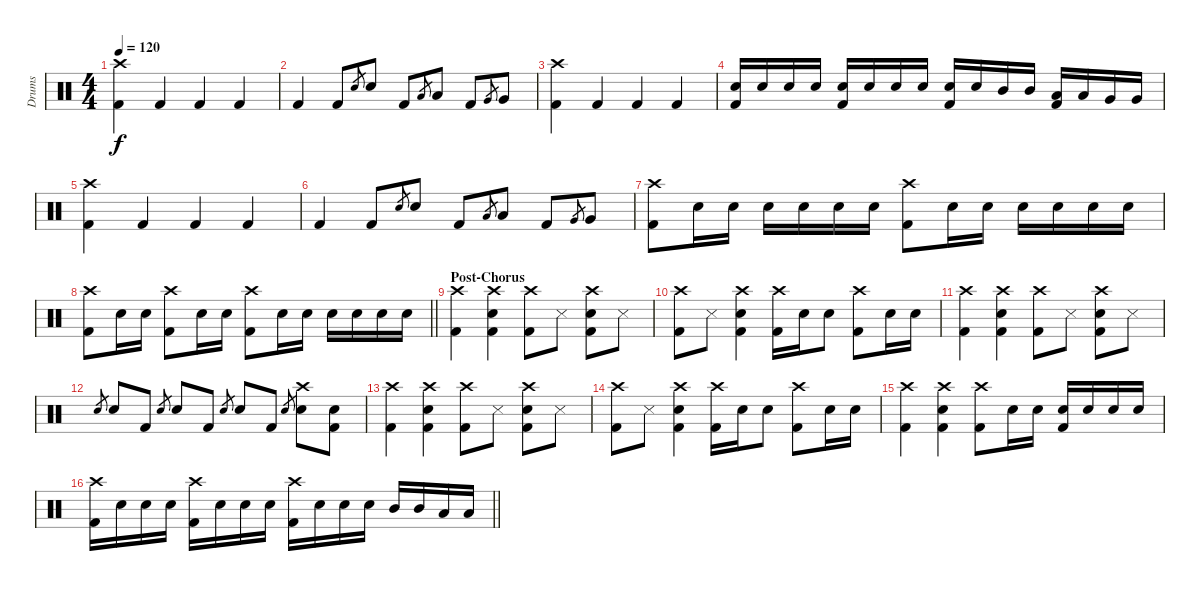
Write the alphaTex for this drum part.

\track ("Drums" "Drums") {instrument percussion}
\staff {score}
\articulation defaults
\ts (4 4)
\tempo 120
\clef neutral
\ks c
("Crash high (hit)" "Kick (hit) 2").4{dy f} "Kick (hit) 2".4 "Kick (hit) 2".4 "Kick (hit) 2".4 |
"Kick (hit) 2".4 "Kick (hit) 2".8 "Snare (hit) 2".8{gr} "Snare (hit) 2".8 "Kick (hit) 2".8 "Low Tom (hit)".8{gr} "Low Tom (hit)".8 "Kick (hit) 2".8 "Very Low Tom (hit)".8{gr} "Very Low Tom (hit)".8 |
("Crash high (hit)" "Kick (hit) 2").4 "Kick (hit) 2".4 "Kick (hit) 2".4 "Kick (hit) 2".4 |
("Snare (hit) 2" "Kick (hit) 2").16{volume 5} "Snare (hit) 2".16{volume 13} "Snare (hit) 2".16 "Snare (hit) 2".16 ("Snare (hit) 2" "Kick (hit) 2").16 "Snare (hit) 2".16 "Snare (hit) 2".16 "Snare (hit) 2".16 ("Snare (hit) 2" "Kick (hit) 2").16 "Snare (hit) 2".16 "Mid Tom (hit)".16 "Mid Tom (hit)".16 ("Low Tom (hit)" "Kick (hit) 2").16 "Low Tom (hit)".16 "Very Low Tom (hit)".16 "Very Low Tom (hit)".16 |
("Crash high (hit)" "Kick (hit) 2").4 "Kick (hit) 2".4 "Kick (hit) 2".4 "Kick (hit) 2".4 |
"Kick (hit) 2".4 "Kick (hit) 2".8 "Snare (hit) 2".8{gr} "Snare (hit) 2".8 "Kick (hit) 2".8 "Low Tom (hit)".8{gr} "Low Tom (hit)".8 "Kick (hit) 2".8 "Very Low Tom (hit)".8{gr} "Very Low Tom (hit)".8 |
("Crash high (hit)" "Kick (hit) 2").8 "Snare (hit) 2".16 "Snare (hit) 2".16 "Snare (hit) 2".16 "Snare (hit) 2".16 "Snare (hit) 2".16 "Snare (hit) 2".16 ("Crash high (hit)" "Kick (hit) 2").8 "Snare (hit) 2".16 "Snare (hit) 2".16 "Snare (hit) 2".16 "Snare (hit) 2".16 "Snare (hit) 2".16 "Snare (hit) 2".16 |
\barLineRight lightlight
("Crash high (hit)" "Kick (hit) 2").8 "Snare (hit) 2".16 "Snare (hit) 2".16 ("Crash high (hit)" "Kick (hit) 2").8 "Snare (hit) 2".16 "Snare (hit) 2".16 ("Crash high (hit)" "Kick (hit) 2").8 "Snare (hit) 2".16 "Snare (hit) 2".16 "Snare (hit) 2".16 "Snare (hit) 2".16 "Snare (hit) 2".16 "Snare (hit) 2".16 |
\section ("" "Post-Chorus")
("Crash high (hit)" "Kick (hit) 2").4 ("Crash high (hit)" "Snare (hit) 2" "Kick (hit) 2").4 ("Crash high (hit)" "Kick (hit) 2").8 "Snare (side stick) 3".8 ("Crash high (hit)" "Snare (hit) 2" "Kick (hit) 2").8 "Snare (side stick) 3".8 |
("Crash high (hit)" "Kick (hit) 2").8 "Snare (side stick) 3".8 ("Crash high (hit)" "Snare (hit) 2" "Kick (hit) 2").4 ("Crash high (hit)" "Kick (hit) 2").16 "Snare (hit) 2".16 "Snare (hit) 2".8 ("Crash high (hit)" "Kick (hit) 2").8 "Snare (hit) 2".16 "Snare (hit) 2".16 |
("Crash high (hit)" "Kick (hit) 2").4 ("Crash high (hit)" "Snare (hit) 2" "Kick (hit) 2").4 ("Crash high (hit)" "Kick (hit) 2").8 "Snare (side stick) 3".8 ("Crash high (hit)" "Snare (hit) 2" "Kick (hit) 2").8 "Snare (side stick) 3".8 |
"Snare (hit) 2".8{gr} "Snare (hit) 2".8 "Kick (hit) 2".8 "Snare (hit) 2".8{gr} "Snare (hit) 2".8 "Kick (hit) 2".8 "Snare (hit) 2".8{gr} "Snare (hit) 2".8 "Kick (hit) 2".8 "Snare (hit) 2".8{gr} ("Crash high (hit)" "Snare (hit) 2").8 ("Snare (hit) 2" "Kick (hit) 2").8 |
("Crash high (hit)" "Kick (hit) 2").4 ("Crash high (hit)" "Snare (hit) 2" "Kick (hit) 2").4 ("Crash high (hit)" "Kick (hit) 2").8 "Snare (side stick) 3".8 ("Crash high (hit)" "Snare (hit) 2" "Kick (hit) 2").8 "Snare (side stick) 3".8 |
("Crash high (hit)" "Kick (hit) 2").8 "Snare (side stick) 3".8 ("Crash high (hit)" "Snare (hit) 2" "Kick (hit) 2").4 ("Crash high (hit)" "Kick (hit) 2").16 "Snare (hit) 2".16 "Snare (hit) 2".8 ("Crash high (hit)" "Kick (hit) 2").8 "Snare (hit) 2".16 "Snare (hit) 2".16 |
("Crash high (hit)" "Kick (hit) 2").4 ("Crash high (hit)" "Snare (hit) 2" "Kick (hit) 2").4 ("Crash high (hit)" "Kick (hit) 2").8 "Snare (hit) 2".16 "Snare (hit) 2".16 ("Snare (hit) 2" "Kick (hit) 2").16 "Snare (hit) 2".16 "Snare (hit) 2".16 "Snare (hit) 2".16 |
\barLineRight lightlight
("Crash high (hit)" "Kick (hit) 2").16 "Snare (hit) 2".16 "Snare (hit) 2".16 "Snare (hit) 2".16 ("Crash high (hit)" "Kick (hit) 2").16 "Snare (hit) 2".16 "Snare (hit) 2".16 "Snare (hit) 2".16 ("Crash high (hit)" "Kick (hit) 2").16 "Snare (hit) 2".16 "Snare (hit) 2".16 "Snare (hit) 2".16 "Mid Tom (hit)".16 "Mid Tom (hit)".16 "Low Tom (hit)".16 "Low Tom (hit)".16
